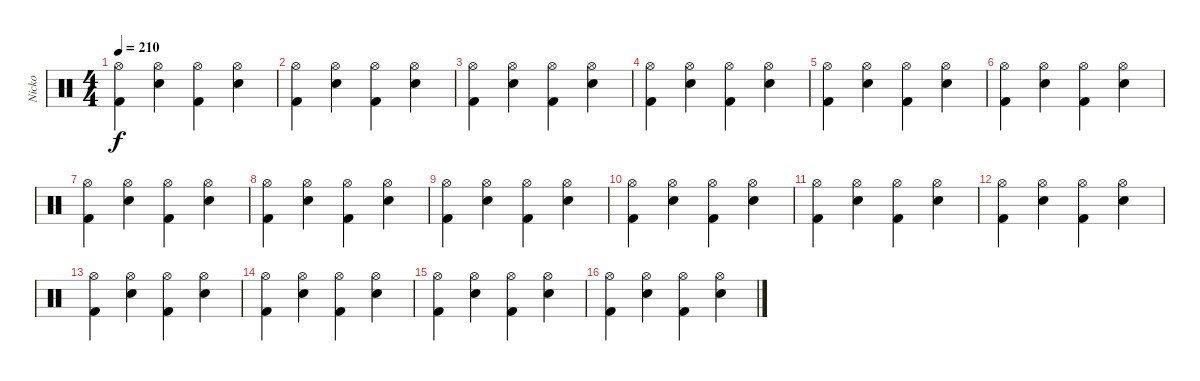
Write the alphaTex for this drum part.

\track ("Nicko" "Nicko") {instrument percussion}
\staff {score}
\articulation defaults
\ts (4 4)
\tempo 210
\clef neutral
\ks c
("Hi-Hat (open)" "Kick (hit) 2").4{dy f} ("Hi-Hat (open)" "Electric Snare (hit)").4 ("Hi-Hat (open)" "Kick (hit) 2").4 ("Hi-Hat (open)" "Electric Snare (hit)").4 |
("Hi-Hat (open)" "Kick (hit) 2").4 ("Hi-Hat (open)" "Electric Snare (hit)").4 ("Hi-Hat (open)" "Kick (hit) 2").4 ("Hi-Hat (open)" "Electric Snare (hit)").4 |
("Hi-Hat (open)" "Kick (hit) 2").4 ("Hi-Hat (open)" "Electric Snare (hit)").4 ("Hi-Hat (open)" "Kick (hit) 2").4 ("Hi-Hat (open)" "Electric Snare (hit)").4 |
("Hi-Hat (open)" "Kick (hit) 2").4 ("Hi-Hat (open)" "Electric Snare (hit)").4 ("Hi-Hat (open)" "Kick (hit) 2").4 ("Hi-Hat (open)" "Electric Snare (hit)").4 |
("Hi-Hat (open)" "Kick (hit) 2").4 ("Hi-Hat (open)" "Electric Snare (hit)").4 ("Hi-Hat (open)" "Kick (hit) 2").4 ("Hi-Hat (open)" "Electric Snare (hit)").4 |
("Hi-Hat (open)" "Kick (hit) 2").4 ("Hi-Hat (open)" "Electric Snare (hit)").4 ("Hi-Hat (open)" "Kick (hit) 2").4 ("Hi-Hat (open)" "Electric Snare (hit)").4 |
("Hi-Hat (open)" "Kick (hit) 2").4 ("Hi-Hat (open)" "Electric Snare (hit)").4 ("Hi-Hat (open)" "Kick (hit) 2").4 ("Hi-Hat (open)" "Electric Snare (hit)").4 |
("Hi-Hat (open)" "Kick (hit) 2").4 ("Hi-Hat (open)" "Electric Snare (hit)").4 ("Hi-Hat (open)" "Kick (hit) 2").4 ("Hi-Hat (open)" "Electric Snare (hit)").4 |
("Hi-Hat (open)" "Kick (hit) 2").4 ("Hi-Hat (open)" "Electric Snare (hit)").4 ("Hi-Hat (open)" "Kick (hit) 2").4 ("Hi-Hat (open)" "Electric Snare (hit)").4 |
("Hi-Hat (open)" "Kick (hit) 2").4 ("Hi-Hat (open)" "Electric Snare (hit)").4 ("Hi-Hat (open)" "Kick (hit) 2").4 ("Hi-Hat (open)" "Electric Snare (hit)").4 |
("Hi-Hat (open)" "Kick (hit) 2").4 ("Hi-Hat (open)" "Electric Snare (hit)").4 ("Hi-Hat (open)" "Kick (hit) 2").4 ("Hi-Hat (open)" "Electric Snare (hit)").4 |
("Hi-Hat (open)" "Kick (hit) 2").4 ("Hi-Hat (open)" "Electric Snare (hit)").4 ("Hi-Hat (open)" "Kick (hit) 2").4 ("Hi-Hat (open)" "Electric Snare (hit)").4 |
("Hi-Hat (open)" "Kick (hit) 2").4 ("Hi-Hat (open)" "Electric Snare (hit)").4 ("Hi-Hat (open)" "Kick (hit) 2").4 ("Hi-Hat (open)" "Electric Snare (hit)").4 |
("Hi-Hat (open)" "Kick (hit) 2").4 ("Hi-Hat (open)" "Electric Snare (hit)").4 ("Hi-Hat (open)" "Kick (hit) 2").4 ("Hi-Hat (open)" "Electric Snare (hit)").4 |
("Hi-Hat (open)" "Kick (hit) 2").4 ("Hi-Hat (open)" "Electric Snare (hit)").4 ("Hi-Hat (open)" "Kick (hit) 2").4 ("Hi-Hat (open)" "Electric Snare (hit)").4 |
("Hi-Hat (open)" "Kick (hit) 2").4 ("Hi-Hat (open)" "Electric Snare (hit)").4 ("Hi-Hat (open)" "Kick (hit) 2").4 ("Hi-Hat (open)" "Electric Snare (hit)").4
